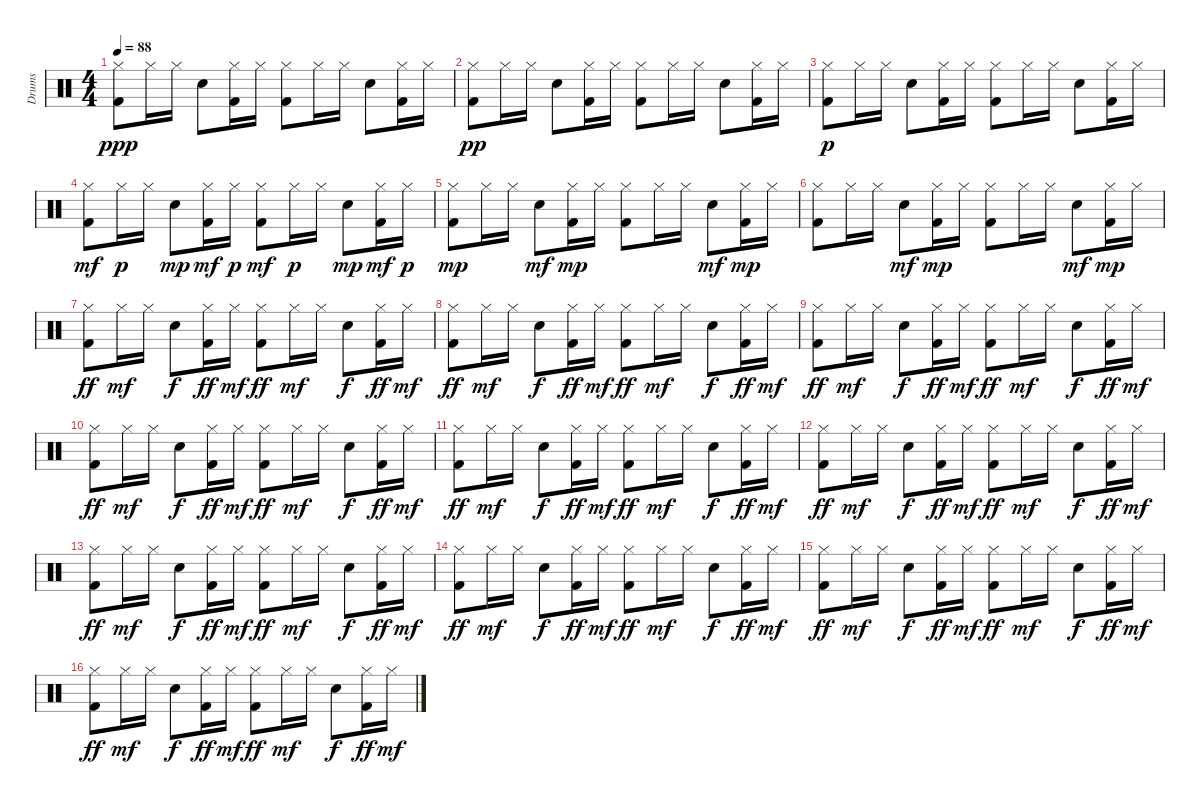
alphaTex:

\track ("Drums" "Drums") {instrument percussion}
\staff {score}
\articulation defaults
\ts (4 4)
\tempo 88
\clef neutral
\ks c
("Hi-Hat (closed)" "Kick (hit) 2").8{dy ppp} "Hi-Hat (closed)".16 "Hi-Hat (closed)".16 "Snare (hit) 2".8 ("Hi-Hat (closed)" "Kick (hit) 2").16 "Hi-Hat (closed)".16 ("Hi-Hat (closed)" "Kick (hit) 2").8 "Hi-Hat (closed)".16 "Hi-Hat (closed)".16 "Snare (hit) 2".8 ("Hi-Hat (closed)" "Kick (hit) 2").16 "Hi-Hat (closed)".16 |
("Hi-Hat (closed)" "Kick (hit) 2").8{dy pp} "Hi-Hat (closed)".16 "Hi-Hat (closed)".16 "Snare (hit) 2".8 ("Hi-Hat (closed)" "Kick (hit) 2").16 "Hi-Hat (closed)".16 ("Hi-Hat (closed)" "Kick (hit) 2").8 "Hi-Hat (closed)".16 "Hi-Hat (closed)".16 "Snare (hit) 2".8 ("Hi-Hat (closed)" "Kick (hit) 2").16 "Hi-Hat (closed)".16 |
("Hi-Hat (closed)" "Kick (hit) 2").8{dy p} "Hi-Hat (closed)".16 "Hi-Hat (closed)".16 "Snare (hit) 2".8 ("Hi-Hat (closed)" "Kick (hit) 2").16 "Hi-Hat (closed)".16 ("Hi-Hat (closed)" "Kick (hit) 2").8 "Hi-Hat (closed)".16 "Hi-Hat (closed)".16 "Snare (hit) 2".8 ("Hi-Hat (closed)" "Kick (hit) 2").16 "Hi-Hat (closed)".16 |
("Hi-Hat (closed)" "Kick (hit) 2").8{dy mf} "Hi-Hat (closed)".16{dy p} "Hi-Hat (closed)".16 "Snare (hit) 2".8{dy mp} ("Hi-Hat (closed)" "Kick (hit) 2").16{dy mf} "Hi-Hat (closed)".16{dy p} ("Hi-Hat (closed)" "Kick (hit) 2").8{dy mf} "Hi-Hat (closed)".16{dy p} "Hi-Hat (closed)".16 "Snare (hit) 2".8{dy mp} ("Hi-Hat (closed)" "Kick (hit) 2").16{dy mf} "Hi-Hat (closed)".16{dy p} |
("Hi-Hat (closed)" "Kick (hit) 2").8{dy mp} "Hi-Hat (closed)".16 "Hi-Hat (closed)".16 "Snare (hit) 2".8{dy mf} ("Hi-Hat (closed)" "Kick (hit) 2").16{dy mp} "Hi-Hat (closed)".16 ("Hi-Hat (closed)" "Kick (hit) 2").8 "Hi-Hat (closed)".16 "Hi-Hat (closed)".16 "Snare (hit) 2".8{dy mf} ("Hi-Hat (closed)" "Kick (hit) 2").16{dy mp} "Hi-Hat (closed)".16 |
("Hi-Hat (closed)" "Kick (hit) 2").8 "Hi-Hat (closed)".16 "Hi-Hat (closed)".16 "Snare (hit) 2".8{dy mf} ("Hi-Hat (closed)" "Kick (hit) 2").16{dy mp} "Hi-Hat (closed)".16 ("Hi-Hat (closed)" "Kick (hit) 2").8 "Hi-Hat (closed)".16 "Hi-Hat (closed)".16 "Snare (hit) 2".8{dy mf} ("Hi-Hat (closed)" "Kick (hit) 2").16{dy mp} "Hi-Hat (closed)".16 |
("Hi-Hat (closed)" "Kick (hit) 2").8{dy ff} "Hi-Hat (closed)".16{dy mf} "Hi-Hat (closed)".16 "Snare (hit) 2".8{dy f} ("Hi-Hat (closed)" "Kick (hit) 2").16{dy ff} "Hi-Hat (closed)".16{dy mf} ("Hi-Hat (closed)" "Kick (hit) 2").8{dy ff} "Hi-Hat (closed)".16{dy mf} "Hi-Hat (closed)".16 "Snare (hit) 2".8{dy f} ("Hi-Hat (closed)" "Kick (hit) 2").16{dy ff} "Hi-Hat (closed)".16{dy mf} |
("Hi-Hat (closed)" "Kick (hit) 2").8{dy ff} "Hi-Hat (closed)".16{dy mf} "Hi-Hat (closed)".16 "Snare (hit) 2".8{dy f} ("Hi-Hat (closed)" "Kick (hit) 2").16{dy ff} "Hi-Hat (closed)".16{dy mf} ("Hi-Hat (closed)" "Kick (hit) 2").8{dy ff} "Hi-Hat (closed)".16{dy mf} "Hi-Hat (closed)".16 "Snare (hit) 2".8{dy f} ("Hi-Hat (closed)" "Kick (hit) 2").16{dy ff} "Hi-Hat (closed)".16{dy mf} |
("Hi-Hat (closed)" "Kick (hit) 2").8{dy ff} "Hi-Hat (closed)".16{dy mf} "Hi-Hat (closed)".16 "Snare (hit) 2".8{dy f} ("Hi-Hat (closed)" "Kick (hit) 2").16{dy ff} "Hi-Hat (closed)".16{dy mf} ("Hi-Hat (closed)" "Kick (hit) 2").8{dy ff} "Hi-Hat (closed)".16{dy mf} "Hi-Hat (closed)".16 "Snare (hit) 2".8{dy f} ("Hi-Hat (closed)" "Kick (hit) 2").16{dy ff} "Hi-Hat (closed)".16{dy mf} |
("Hi-Hat (closed)" "Kick (hit) 2").8{dy ff} "Hi-Hat (closed)".16{dy mf} "Hi-Hat (closed)".16 "Snare (hit) 2".8{dy f} ("Hi-Hat (closed)" "Kick (hit) 2").16{dy ff} "Hi-Hat (closed)".16{dy mf} ("Hi-Hat (closed)" "Kick (hit) 2").8{dy ff} "Hi-Hat (closed)".16{dy mf} "Hi-Hat (closed)".16 "Snare (hit) 2".8{dy f} ("Hi-Hat (closed)" "Kick (hit) 2").16{dy ff} "Hi-Hat (closed)".16{dy mf} |
("Hi-Hat (closed)" "Kick (hit) 2").8{dy ff} "Hi-Hat (closed)".16{dy mf} "Hi-Hat (closed)".16 "Snare (hit) 2".8{dy f} ("Hi-Hat (closed)" "Kick (hit) 2").16{dy ff} "Hi-Hat (closed)".16{dy mf} ("Hi-Hat (closed)" "Kick (hit) 2").8{dy ff} "Hi-Hat (closed)".16{dy mf} "Hi-Hat (closed)".16 "Snare (hit) 2".8{dy f} ("Hi-Hat (closed)" "Kick (hit) 2").16{dy ff} "Hi-Hat (closed)".16{dy mf} |
("Hi-Hat (closed)" "Kick (hit) 2").8{dy ff} "Hi-Hat (closed)".16{dy mf} "Hi-Hat (closed)".16 "Snare (hit) 2".8{dy f} ("Hi-Hat (closed)" "Kick (hit) 2").16{dy ff} "Hi-Hat (closed)".16{dy mf} ("Hi-Hat (closed)" "Kick (hit) 2").8{dy ff} "Hi-Hat (closed)".16{dy mf} "Hi-Hat (closed)".16 "Snare (hit) 2".8{dy f} ("Hi-Hat (closed)" "Kick (hit) 2").16{dy ff} "Hi-Hat (closed)".16{dy mf} |
("Hi-Hat (closed)" "Kick (hit) 2").8{dy ff} "Hi-Hat (closed)".16{dy mf} "Hi-Hat (closed)".16 "Snare (hit) 2".8{dy f} ("Hi-Hat (closed)" "Kick (hit) 2").16{dy ff} "Hi-Hat (closed)".16{dy mf} ("Hi-Hat (closed)" "Kick (hit) 2").8{dy ff} "Hi-Hat (closed)".16{dy mf} "Hi-Hat (closed)".16 "Snare (hit) 2".8{dy f} ("Hi-Hat (closed)" "Kick (hit) 2").16{dy ff} "Hi-Hat (closed)".16{dy mf} |
("Hi-Hat (closed)" "Kick (hit) 2").8{dy ff} "Hi-Hat (closed)".16{dy mf} "Hi-Hat (closed)".16 "Snare (hit) 2".8{dy f} ("Hi-Hat (closed)" "Kick (hit) 2").16{dy ff} "Hi-Hat (closed)".16{dy mf} ("Hi-Hat (closed)" "Kick (hit) 2").8{dy ff} "Hi-Hat (closed)".16{dy mf} "Hi-Hat (closed)".16 "Snare (hit) 2".8{dy f} ("Hi-Hat (closed)" "Kick (hit) 2").16{dy ff} "Hi-Hat (closed)".16{dy mf} |
("Hi-Hat (closed)" "Kick (hit) 2").8{dy ff} "Hi-Hat (closed)".16{dy mf} "Hi-Hat (closed)".16 "Snare (hit) 2".8{dy f} ("Hi-Hat (closed)" "Kick (hit) 2").16{dy ff} "Hi-Hat (closed)".16{dy mf} ("Hi-Hat (closed)" "Kick (hit) 2").8{dy ff} "Hi-Hat (closed)".16{dy mf} "Hi-Hat (closed)".16 "Snare (hit) 2".8{dy f} ("Hi-Hat (closed)" "Kick (hit) 2").16{dy ff} "Hi-Hat (closed)".16{dy mf} |
("Hi-Hat (closed)" "Kick (hit) 2").8{dy ff} "Hi-Hat (closed)".16{dy mf} "Hi-Hat (closed)".16 "Snare (hit) 2".8{dy f} ("Hi-Hat (closed)" "Kick (hit) 2").16{dy ff} "Hi-Hat (closed)".16{dy mf} ("Hi-Hat (closed)" "Kick (hit) 2").8{dy ff} "Hi-Hat (closed)".16{dy mf} "Hi-Hat (closed)".16 "Snare (hit) 2".8{dy f} ("Hi-Hat (closed)" "Kick (hit) 2").16{dy ff} "Hi-Hat (closed)".16{dy mf}
